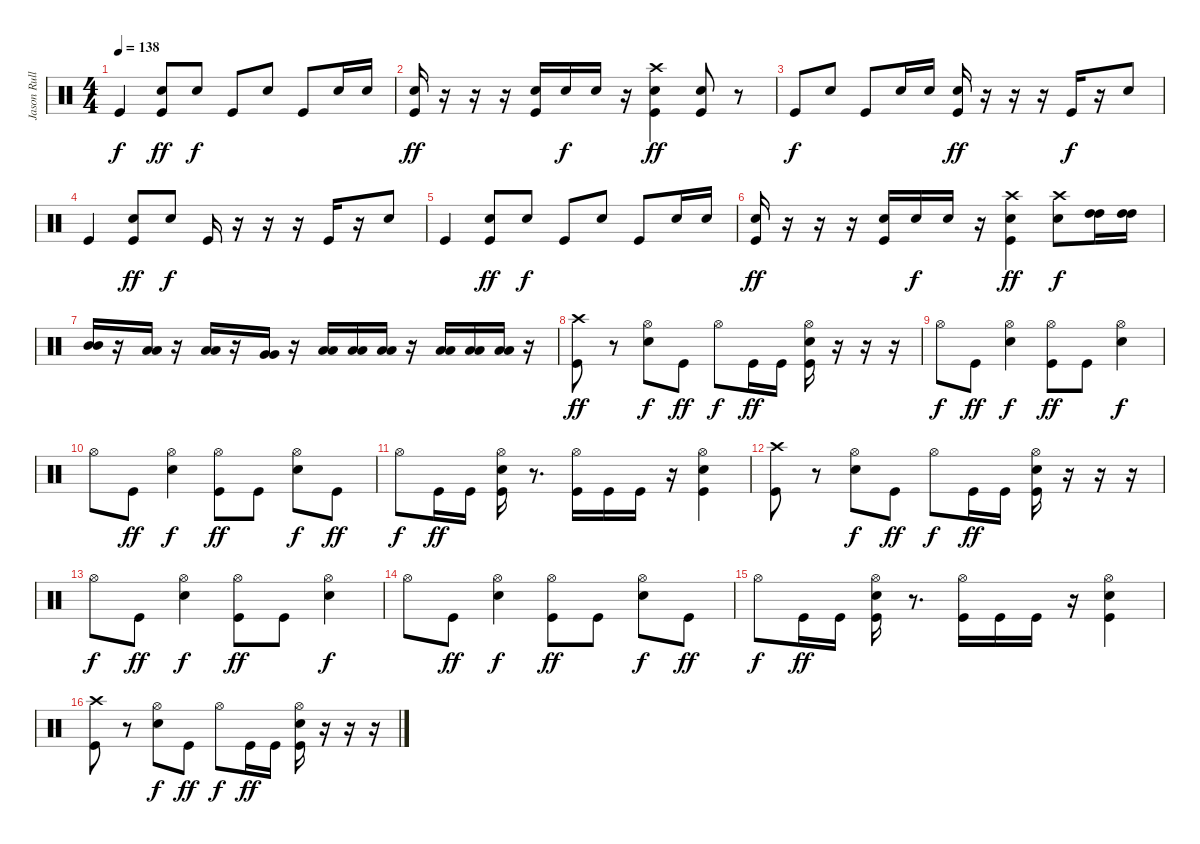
\track ("Jason Rullo" "Jason Rull") {instrument percussion}
\staff {score}
\articulation defaults
\ts (4 4)
\tempo 138
\clef neutral
\ks c "Kick (hit)".4{dy f}
("Kick (hit)" "Snare (hit) 2").8{dy ff} "Snare (hit) 2".8{dy f} "Kick (hit)".8 "Snare (hit) 2".8 "Kick (hit)".8 "Snare (hit) 2".16 "Snare (hit) 2".16 |
("Kick (hit)" "Snare (hit) 2").16{dy ff} r.16 r.16 r.16 ("Kick (hit)" "Snare (hit) 2").16 "Snare (hit) 2".16{dy f} "Snare (hit) 2".16 r.16 ("Kick (hit)" "Snare (hit) 2" "Crash high (hit)").4{dy ff} ("Kick (hit)" "Snare (hit) 2").8 r.8 |
"Kick (hit)".8{dy f} "Snare (hit) 2".8 "Kick (hit)".8 "Snare (hit) 2".16 "Snare (hit) 2".16 ("Kick (hit)" "Snare (hit) 2").16{dy ff} r.16 r.16 r.16 "Kick (hit)".16{dy f} r.16 "Snare (hit) 2".8 |
"Kick (hit)".4 ("Kick (hit)" "Snare (hit) 2").8{dy ff} "Snare (hit) 2".8{dy f} "Kick (hit)".16 r.16 r.16 r.16 "Kick (hit)".16 r.16 "Snare (hit) 2".8 |
"Kick (hit)".4 ("Kick (hit)" "Snare (hit) 2").8{dy ff} "Snare (hit) 2".8{dy f} "Kick (hit)".8 "Snare (hit) 2".8 "Kick (hit)".8 "Snare (hit) 2".16 "Snare (hit) 2".16 |
("Kick (hit)" "Snare (hit) 2").16{dy ff} r.16 r.16 r.16 ("Kick (hit)" "Snare (hit) 2").16 "Snare (hit) 2".16{dy f} "Snare (hit) 2".16 r.16 ("Kick (hit)" "Snare (hit) 2" "Crash high (hit)").4{dy ff} ("Snare (hit) 2" "Crash high (hit)").8{dy f} ("High Tom (hit)" "High Tom (hit)").16 ("High Tom (hit)" "High Tom (hit)").16 |
("Mid Tom (hit)" "Mid Tom (hit)").16 r.16 ("Low Tom (hit)" "Low Tom (hit)").16 r.16 ("Low Tom (hit)" "Low Tom (hit)").16 r.16 ("Very Low Tom (hit)" "Very Low Tom (hit)").16 r.16 ("Low Tom (hit)" "Low Tom (hit)").16 ("Low Tom (hit)" "Low Tom (hit)").16 ("Low Tom (hit)" "Low Tom (hit)").16 r.16 ("Low Tom (hit)" "Low Tom (hit)").16 ("Low Tom (hit)" "Low Tom (hit)").16 ("Low Tom (hit)" "Low Tom (hit)").16 r.16 |
("Kick (hit)" "Crash high (hit)").8{dy ff} r.8 ("Snare (hit) 2" "Hi-Hat (open)").8{dy f} "Kick (hit)".8{dy ff} "Hi-Hat (open)".8{dy f} "Kick (hit)".16{dy ff} "Kick (hit)".16 ("Kick (hit)" "Snare (hit) 2" "Hi-Hat (open)").16 r.16 r.16 r.16 |
"Hi-Hat (open)".8{dy f} "Kick (hit)".8{dy ff} ("Snare (hit) 2" "Hi-Hat (open)").4{dy f} ("Kick (hit)" "Hi-Hat (open)").8{dy ff} "Kick (hit)".8 ("Snare (hit) 2" "Hi-Hat (open)").4{dy f} |
"Hi-Hat (open)".8 "Kick (hit)".8{dy ff} ("Snare (hit) 2" "Hi-Hat (open)").4{dy f} ("Kick (hit)" "Hi-Hat (open)").8{dy ff} "Kick (hit)".8 ("Snare (hit) 2" "Hi-Hat (open)").8{dy f} "Kick (hit)".8{dy ff} |
"Hi-Hat (open)".8{dy f} "Kick (hit)".16{dy ff} "Kick (hit)".16 ("Kick (hit)" "Snare (hit) 2" "Hi-Hat (open)").16 r.8{d} ("Kick (hit)" "Hi-Hat (open)").16 "Kick (hit)".16 "Kick (hit)".16 r.16 ("Kick (hit)" "Snare (hit) 2" "Hi-Hat (open)").4 |
("Kick (hit)" "Crash high (hit)").8 r.8 ("Snare (hit) 2" "Hi-Hat (open)").8{dy f} "Kick (hit)".8{dy ff} "Hi-Hat (open)".8{dy f} "Kick (hit)".16{dy ff} "Kick (hit)".16 ("Kick (hit)" "Snare (hit) 2" "Hi-Hat (open)").16 r.16 r.16 r.16 |
"Hi-Hat (open)".8{dy f} "Kick (hit)".8{dy ff} ("Snare (hit) 2" "Hi-Hat (open)").4{dy f} ("Kick (hit)" "Hi-Hat (open)").8{dy ff} "Kick (hit)".8 ("Snare (hit) 2" "Hi-Hat (open)").4{dy f} |
"Hi-Hat (open)".8 "Kick (hit)".8{dy ff} ("Snare (hit) 2" "Hi-Hat (open)").4{dy f} ("Kick (hit)" "Hi-Hat (open)").8{dy ff} "Kick (hit)".8 ("Snare (hit) 2" "Hi-Hat (open)").8{dy f} "Kick (hit)".8{dy ff} |
"Hi-Hat (open)".8{dy f} "Kick (hit)".16{dy ff} "Kick (hit)".16 ("Kick (hit)" "Snare (hit) 2" "Hi-Hat (open)").16 r.8{d} ("Kick (hit)" "Hi-Hat (open)").16 "Kick (hit)".16 "Kick (hit)".16 r.16 ("Kick (hit)" "Snare (hit) 2" "Hi-Hat (open)").4 |
("Kick (hit)" "Crash high (hit)").8 r.8 ("Snare (hit) 2" "Hi-Hat (open)").8{dy f} "Kick (hit)".8{dy ff} "Hi-Hat (open)".8{dy f} "Kick (hit)".16{dy ff} "Kick (hit)".16 ("Kick (hit)" "Snare (hit) 2" "Hi-Hat (open)").16 r.16 r.16 r.16
